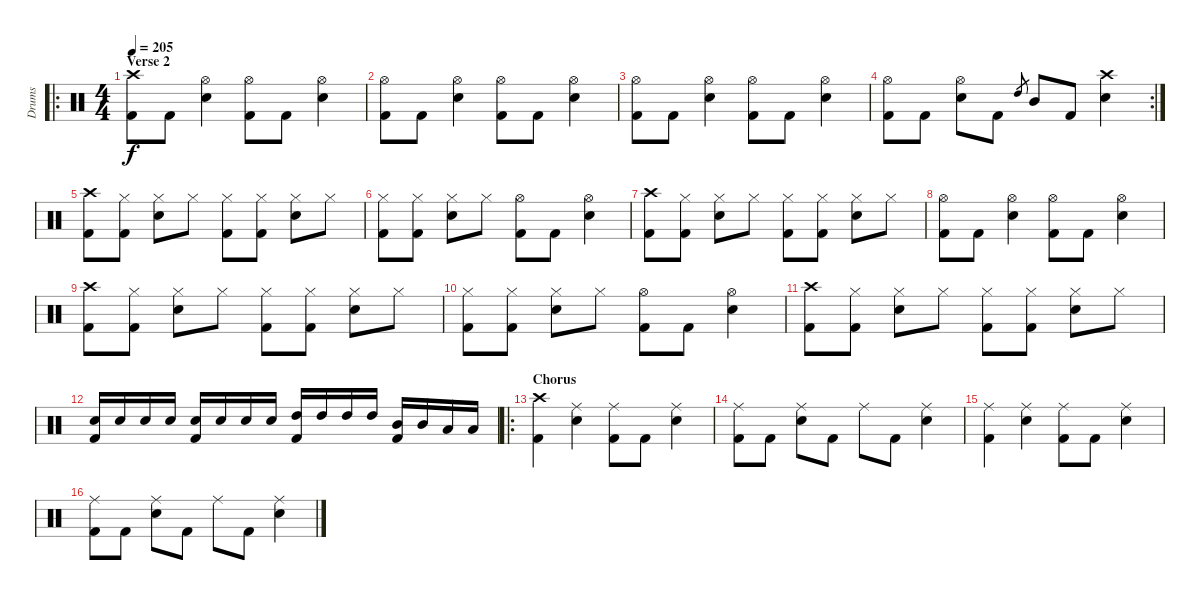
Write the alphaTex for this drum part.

\track ("Drums" "Drums") {instrument percussion}
\staff {score}
\articulation defaults
\ro
\ts (4 4)
\section ("" "Verse 2")
\tempo 205
\clef neutral
\ks c
("Crash high (hit)" "Kick (hit) 2").8{dy f} "Kick (hit) 2".8 ("Hi-Hat (open)" "Electric Snare (hit)").4 ("Hi-Hat (open)" "Kick (hit) 2").8 "Kick (hit) 2".8 ("Hi-Hat (open)" "Electric Snare (hit)").4 |
("Hi-Hat (open)" "Kick (hit) 2").8 "Kick (hit) 2".8 ("Hi-Hat (open)" "Electric Snare (hit)").4 ("Hi-Hat (open)" "Kick (hit) 2").8 "Kick (hit) 2".8 ("Hi-Hat (open)" "Electric Snare (hit)").4 |
("Hi-Hat (open)" "Kick (hit) 2").8 "Kick (hit) 2".8 ("Hi-Hat (open)" "Electric Snare (hit)").4 ("Hi-Hat (open)" "Kick (hit) 2").8 "Kick (hit) 2".8 ("Hi-Hat (open)" "Electric Snare (hit)").4 |
\rc 2
("Hi-Hat (open)" "Kick (hit) 2").8 "Kick (hit) 2".8 ("Hi-Hat (open)" "Electric Snare (hit)").8 "Kick (hit) 2".8 "High Tom (hit)".8{gr} "Mid Tom (hit)".8 "Kick (hit) 2".8 ("Crash high (hit)" "Electric Snare (hit)").4 |
("Crash high (hit)" "Kick (hit) 2").8 ("Hi-Hat (closed)" "Kick (hit) 2").8 ("Hi-Hat (closed)" "Electric Snare (hit)").8 "Hi-Hat (closed)".8 ("Hi-Hat (closed)" "Kick (hit) 2").8 ("Hi-Hat (closed)" "Kick (hit) 2").8 ("Hi-Hat (closed)" "Electric Snare (hit)").8 "Hi-Hat (closed)".8 |
("Hi-Hat (closed)" "Kick (hit) 2").8 ("Hi-Hat (closed)" "Kick (hit) 2").8 ("Hi-Hat (closed)" "Electric Snare (hit)").8 "Hi-Hat (closed)".8 ("Hi-Hat (open)" "Kick (hit) 2").8 "Kick (hit) 2".8 ("Hi-Hat (open)" "Electric Snare (hit)").4 |
("Crash high (hit)" "Kick (hit) 2").8 ("Hi-Hat (closed)" "Kick (hit) 2").8 ("Hi-Hat (closed)" "Electric Snare (hit)").8 "Hi-Hat (closed)".8 ("Hi-Hat (closed)" "Kick (hit) 2").8 ("Hi-Hat (closed)" "Kick (hit) 2").8 ("Hi-Hat (closed)" "Electric Snare (hit)").8 "Hi-Hat (closed)".8 |
("Hi-Hat (open)" "Kick (hit) 2").8 "Kick (hit) 2".8 ("Hi-Hat (open)" "Electric Snare (hit)").4 ("Hi-Hat (open)" "Kick (hit) 2").8 "Kick (hit) 2".8 ("Hi-Hat (open)" "Electric Snare (hit)").4 |
("Crash high (hit)" "Kick (hit) 2").8 ("Hi-Hat (closed)" "Kick (hit) 2").8 ("Hi-Hat (closed)" "Electric Snare (hit)").8 "Hi-Hat (closed)".8 ("Hi-Hat (closed)" "Kick (hit) 2").8 ("Hi-Hat (closed)" "Kick (hit) 2").8 ("Hi-Hat (closed)" "Electric Snare (hit)").8 "Hi-Hat (closed)".8 |
("Hi-Hat (closed)" "Kick (hit) 2").8 ("Hi-Hat (closed)" "Kick (hit) 2").8 ("Hi-Hat (closed)" "Electric Snare (hit)").8 "Hi-Hat (closed)".8 ("Hi-Hat (open)" "Kick (hit) 2").8 "Kick (hit) 2".8 ("Hi-Hat (open)" "Electric Snare (hit)").4 |
("Crash high (hit)" "Kick (hit) 2").8 ("Hi-Hat (closed)" "Kick (hit) 2").8 ("Hi-Hat (closed)" "Electric Snare (hit)").8 "Hi-Hat (closed)".8 ("Hi-Hat (closed)" "Kick (hit) 2").8 ("Hi-Hat (closed)" "Kick (hit) 2").8 ("Hi-Hat (closed)" "Electric Snare (hit)").8 "Hi-Hat (closed)".8 |
("Electric Snare (hit)" "Kick (hit) 2").16 "Electric Snare (hit)".16 "Electric Snare (hit)".16 "Electric Snare (hit)".16 ("Electric Snare (hit)" "Kick (hit) 2").16 "Electric Snare (hit)".16 "Electric Snare (hit)".16 "Electric Snare (hit)".16 ("High Tom (hit)" "Kick (hit) 2").16 "High Tom (hit)".16 "High Tom (hit)".16 "High Tom (hit)".16 ("Mid Tom (hit)" "Kick (hit) 2").16 "Mid Tom (hit)".16 "Low Tom (hit)".16 "Low Tom (hit)".16 |
\ro
\section ("" "Chorus")
("Crash high (hit)" "Kick (hit) 2").4 ("Ride (middle)" "Electric Snare (hit)").4 ("Ride (middle)" "Kick (hit) 2").8 "Kick (hit) 2".8 ("Ride (middle)" "Electric Snare (hit)").4 |
("Ride (middle)" "Kick (hit) 2").8 "Kick (hit) 2".8 ("Ride (middle)" "Electric Snare (hit)").8 "Kick (hit) 2".8 "Ride (middle)".8 "Kick (hit) 2".8 ("Ride (middle)" "Electric Snare (hit)").4 |
("Ride (middle)" "Kick (hit) 2").4 ("Ride (middle)" "Electric Snare (hit)").4 ("Ride (middle)" "Kick (hit) 2").8 "Kick (hit) 2".8 ("Ride (middle)" "Electric Snare (hit)").4 |
("Ride (middle)" "Kick (hit) 2").8 "Kick (hit) 2".8 ("Ride (middle)" "Electric Snare (hit)").8 "Kick (hit) 2".8 "Ride (middle)".8 "Kick (hit) 2".8 ("Ride (middle)" "Electric Snare (hit)").4
